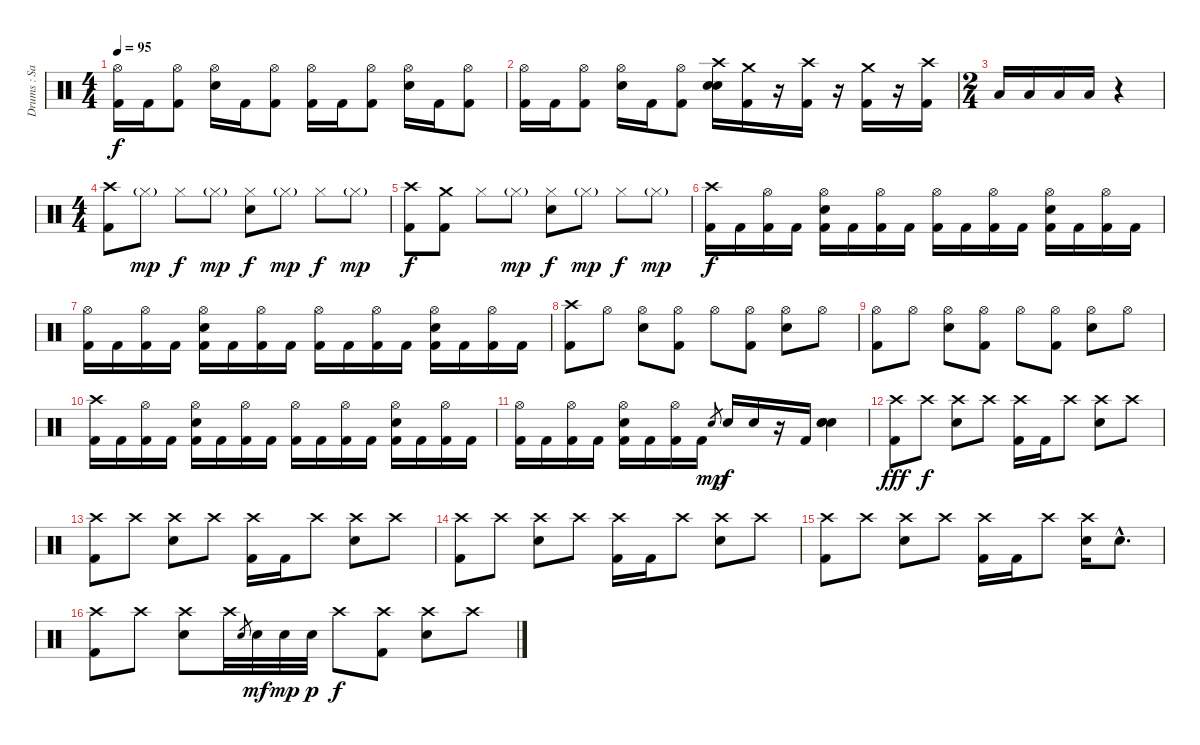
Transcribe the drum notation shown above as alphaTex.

\track ("Drums : Sammy Siegler" "Drums : Sa") {instrument percussion}
\staff {score}
\articulation defaults
\ts (4 4)
\tempo 95
\clef neutral
\ks c
("Hi-Hat (open)" "Kick (hit) 2").16{dy f} "Kick (hit) 2".16 ("Hi-Hat (open)" "Kick (hit) 2").8 ("Hi-Hat (open)" "Electric Snare (hit)").16 "Kick (hit) 2".16 ("Hi-Hat (open)" "Kick (hit) 2").8 ("Hi-Hat (open)" "Kick (hit) 2").16 "Kick (hit) 2".16 ("Hi-Hat (open)" "Kick (hit) 2").8 ("Hi-Hat (open)" "Electric Snare (hit)").16 "Kick (hit) 2".16 ("Hi-Hat (open)" "Kick (hit) 2").8 |
("Hi-Hat (open)" "Kick (hit) 2").16 "Kick (hit) 2".16 ("Hi-Hat (open)" "Kick (hit) 2").8 ("Hi-Hat (open)" "Electric Snare (hit)").16 "Kick (hit) 2".16 ("Hi-Hat (open)" "Kick (hit) 2").8 ("Crash high (hit)" "Electric Snare (hit)" "Electric Snare (hit)").16 ("Crash medium (hit)" "Kick (hit) 2").16 r.16 ("Crash high (hit)" "Kick (hit) 2").16 r.16 ("Crash medium (hit)" "Kick (hit) 2").16 r.16 ("Crash high (hit)" "Kick (hit) 2").16 |
\ts (2 4)
"Low Floor Tom (hit)".16 "Low Tom (hit)".16 "Low Floor Tom (hit)".16 "Low Floor Tom (hit)".16 r.4 |
\ts (4 4)
("Crash high (hit)" "Kick (hit) 2").8 "Hi-Hat (closed)"{g}.8{dy mp} "Hi-Hat (closed)".8{dy f} "Hi-Hat (closed)"{g}.8{dy mp} ("Hi-Hat (closed)" "Electric Snare (hit)").8{dy f} "Hi-Hat (closed)"{g}.8{dy mp} "Hi-Hat (closed)".8{dy f} "Hi-Hat (closed)"{g}.8{dy mp} |
("Crash high (hit)" "Kick (hit) 2").8{dy f} ("Crash medium (hit)" "Kick (hit) 2").8 "Hi-Hat (closed)".8 "Hi-Hat (closed)"{g}.8{dy mp} ("Hi-Hat (closed)" "Electric Snare (hit)").8{dy f} "Hi-Hat (closed)"{g}.8{dy mp} "Hi-Hat (closed)".8{dy f} "Hi-Hat (closed)"{g}.8{dy mp} |
("Crash high (hit)" "Kick (hit) 2").16{dy f} "Kick (hit) 2".16 ("Hi-Hat (open)" "Kick (hit) 2").16 "Kick (hit) 2".16 ("Hi-Hat (open)" "Electric Snare (hit)" "Kick (hit) 2").16 "Kick (hit) 2".16 ("Hi-Hat (open)" "Kick (hit) 2").16 "Kick (hit) 2".16 ("Hi-Hat (open)" "Kick (hit) 2").16 "Kick (hit) 2".16 ("Hi-Hat (open)" "Kick (hit) 2").16 "Kick (hit) 2".16 ("Hi-Hat (open)" "Electric Snare (hit)" "Kick (hit) 2").16 "Kick (hit) 2".16 ("Hi-Hat (open)" "Kick (hit) 2").16 "Kick (hit) 2".16 |
("Hi-Hat (open)" "Kick (hit) 2").16 "Kick (hit) 2".16 ("Hi-Hat (open)" "Kick (hit) 2").16 "Kick (hit) 2".16 ("Hi-Hat (open)" "Electric Snare (hit)" "Kick (hit) 2").16 "Kick (hit) 2".16 ("Hi-Hat (open)" "Kick (hit) 2").16 "Kick (hit) 2".16 ("Hi-Hat (open)" "Kick (hit) 2").16 "Kick (hit) 2".16 ("Hi-Hat (open)" "Kick (hit) 2").16 "Kick (hit) 2".16 ("Hi-Hat (open)" "Electric Snare (hit)" "Kick (hit) 2").16 "Kick (hit) 2".16 ("Hi-Hat (open)" "Kick (hit) 2").16 "Kick (hit) 2".16 |
("Crash high (hit)" "Kick (hit) 2").8 "Hi-Hat (open)".8 ("Hi-Hat (open)" "Electric Snare (hit)").8 ("Hi-Hat (open)" "Kick (hit) 2").8 "Hi-Hat (open)".8 ("Hi-Hat (open)" "Kick (hit) 2").8 ("Hi-Hat (open)" "Electric Snare (hit)").8 "Hi-Hat (open)".8 |
("Hi-Hat (open)" "Kick (hit) 2").8 "Hi-Hat (open)".8 ("Hi-Hat (open)" "Electric Snare (hit)").8 ("Hi-Hat (open)" "Kick (hit) 2").8 "Hi-Hat (open)".8 ("Hi-Hat (open)" "Kick (hit) 2").8 ("Hi-Hat (open)" "Electric Snare (hit)").8 "Hi-Hat (open)".8 |
("Crash high (hit)" "Kick (hit) 2").16 "Kick (hit) 2".16 ("Hi-Hat (open)" "Kick (hit) 2").16 "Kick (hit) 2".16 ("Hi-Hat (open)" "Electric Snare (hit)" "Kick (hit) 2").16 "Kick (hit) 2".16 ("Hi-Hat (open)" "Kick (hit) 2").16 "Kick (hit) 2".16 ("Hi-Hat (open)" "Kick (hit) 2").16 "Kick (hit) 2".16 ("Hi-Hat (open)" "Kick (hit) 2").16 "Kick (hit) 2".16 ("Hi-Hat (open)" "Electric Snare (hit)" "Kick (hit) 2").16 "Kick (hit) 2".16 ("Hi-Hat (open)" "Kick (hit) 2").16 "Kick (hit) 2".16 |
("Hi-Hat (open)" "Kick (hit) 2").16 "Kick (hit) 2".16 ("Hi-Hat (open)" "Kick (hit) 2").16 "Kick (hit) 2".16 ("Hi-Hat (open)" "Electric Snare (hit)" "Kick (hit) 2").16 "Kick (hit) 2".16 ("Hi-Hat (open)" "Kick (hit) 2").16 "Kick (hit) 2".16 "Electric Snare (hit)"{sl}.8{gr dy mp} "Electric Snare (hit)".16{dy f} "Electric Snare (hit)".16 r.16 "Kick (hit) 2".16 ("Snare (hit) 2" "Electric Snare (hit)" "Electric Snare (hit)").4 |
("Crash high (hit)" "Kick (hit) 2").8{dy fff} "Crash high (hit)".8{dy f} ("Crash high (hit)" "Electric Snare (hit)").8 "Crash high (hit)".8 ("Crash high (hit)" "Kick (hit) 2").16 "Kick (hit) 2".16 "Crash high (hit)".8 ("Crash high (hit)" "Electric Snare (hit)").8 "Crash high (hit)".8 |
("Crash high (hit)" "Kick (hit) 2").8 "Crash high (hit)".8 ("Crash high (hit)" "Electric Snare (hit)").8 "Crash high (hit)".8 ("Crash high (hit)" "Kick (hit) 2").16 "Kick (hit) 2".16 "Crash high (hit)".8 ("Crash high (hit)" "Electric Snare (hit)").8 "Crash high (hit)".8 |
("Crash high (hit)" "Kick (hit) 2").8 "Crash high (hit)".8 ("Crash high (hit)" "Electric Snare (hit)").8 "Crash high (hit)".8 ("Crash high (hit)" "Kick (hit) 2").16 "Kick (hit) 2".16 "Crash high (hit)".8 ("Crash high (hit)" "Electric Snare (hit)").8 "Crash high (hit)".8 |
("Crash high (hit)" "Kick (hit) 2").8 "Crash high (hit)".8 ("Crash high (hit)" "Electric Snare (hit)").8 "Crash high (hit)".8 ("Crash high (hit)" "Kick (hit) 2").16 "Kick (hit) 2".16 "Crash high (hit)".8 ("Crash high (hit)" "Electric Snare (hit)").16 "Electric Snare (hit)"{hac}.8{d} |
("Crash high (hit)" "Kick (hit) 2").8 "Crash high (hit)".8 ("Crash high (hit)" "Electric Snare (hit)").8 "Crash high (hit)".32 "Electric Snare (hit)".8{gr} "Electric Snare (hit)".32{dy mf} "Electric Snare (hit)".32{dy mp} "Electric Snare (hit)".32{dy p} "Crash high (hit)".8{dy f} ("Crash high (hit)" "Kick (hit) 2").8 ("Crash high (hit)" "Electric Snare (hit)").8 "Crash high (hit)".8
